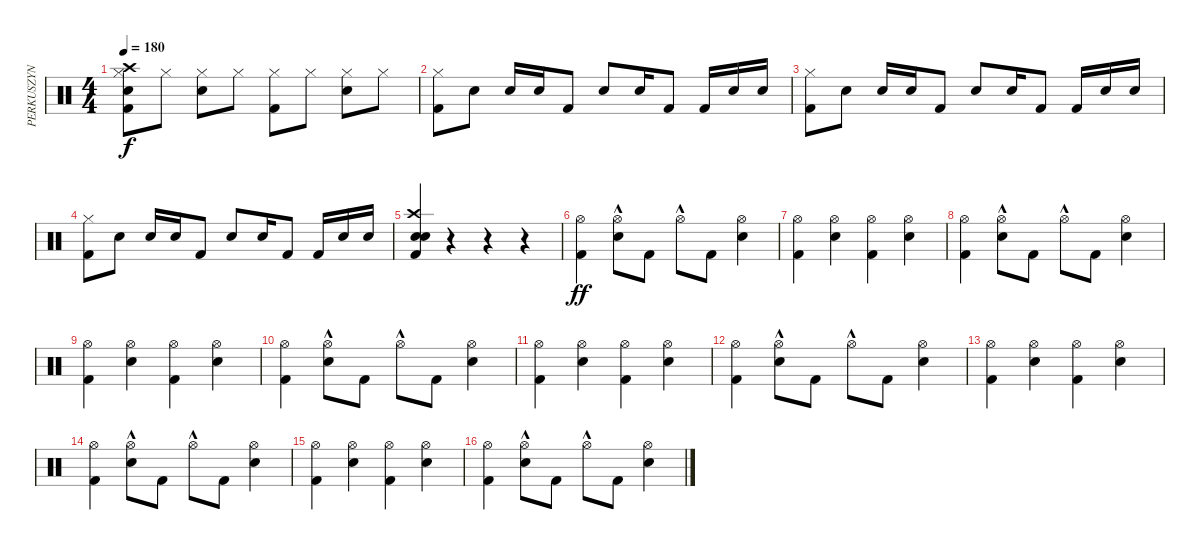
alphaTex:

\track ("PERKUSZYN" "PERKUSZYN") {instrument percussion}
\staff {score}
\articulation defaults
\ts (4 4)
\tempo 180
\clef neutral
\ks c
("Kick (hit) 2" "Snare (hit) 2" "Hi-Hat (closed)" "Crash high (hit)").8{dy f} "Hi-Hat (closed)".8 ("Snare (hit) 2" "Hi-Hat (closed)").8 "Hi-Hat (closed)".8 ("Kick (hit) 2" "Hi-Hat (closed)").8 "Hi-Hat (closed)".8 ("Snare (hit) 2" "Hi-Hat (closed)").8 "Hi-Hat (closed)".8 |
("Kick (hit) 2" "Hi-Hat (closed)").8 "Snare (hit) 2".8 "Snare (hit) 2".16 "Snare (hit) 2".16 "Kick (hit) 2".8 "Snare (hit) 2".8 "Snare (hit) 2".16 "Kick (hit) 2".8 "Kick (hit) 2".16 "Snare (hit) 2".16 "Snare (hit) 2".16 |
("Kick (hit) 2" "Hi-Hat (closed)").8 "Snare (hit) 2".8 "Snare (hit) 2".16 "Snare (hit) 2".16 "Kick (hit) 2".8 "Snare (hit) 2".8 "Snare (hit) 2".16 "Kick (hit) 2".8 "Kick (hit) 2".16 "Snare (hit) 2".16 "Snare (hit) 2".16 |
("Kick (hit) 2" "Hi-Hat (closed)").8 "Snare (hit) 2".8 "Snare (hit) 2".16 "Snare (hit) 2".16 "Kick (hit) 2".8 "Snare (hit) 2".8 "Snare (hit) 2".16 "Kick (hit) 2".8 "Kick (hit) 2".16 "Snare (hit) 2".16 "Snare (hit) 2".16 |
("Kick (hit) 2" "Crash high (hit)" "Snare (hit) 2" "Electric Snare (hit)").4 r.4 r.4 r.4 |
\section ("" "")
("Kick (hit) 2" "Hi-Hat (open)").4{dy ff} ("Snare (hit) 2" "Hi-Hat (open)"{hac}).8 "Kick (hit) 2".8 "Hi-Hat (open)"{hac}.8 "Kick (hit) 2".8 ("Snare (hit) 2" "Hi-Hat (open)").4 |
("Kick (hit) 2" "Hi-Hat (open)").4 ("Snare (hit) 2" "Hi-Hat (open)").4 ("Kick (hit) 2" "Hi-Hat (open)").4 ("Snare (hit) 2" "Hi-Hat (open)").4 |
("Kick (hit) 2" "Hi-Hat (open)").4 ("Snare (hit) 2" "Hi-Hat (open)"{hac}).8 "Kick (hit) 2".8 "Hi-Hat (open)"{hac}.8 "Kick (hit) 2".8 ("Snare (hit) 2" "Hi-Hat (open)").4 |
("Kick (hit) 2" "Hi-Hat (open)").4 ("Snare (hit) 2" "Hi-Hat (open)").4 ("Kick (hit) 2" "Hi-Hat (open)").4 ("Snare (hit) 2" "Hi-Hat (open)").4 |
("Kick (hit) 2" "Hi-Hat (open)").4 ("Snare (hit) 2" "Hi-Hat (open)"{hac}).8 "Kick (hit) 2".8 "Hi-Hat (open)"{hac}.8 "Kick (hit) 2".8 ("Snare (hit) 2" "Hi-Hat (open)").4 |
("Kick (hit) 2" "Hi-Hat (open)").4 ("Snare (hit) 2" "Hi-Hat (open)").4 ("Kick (hit) 2" "Hi-Hat (open)").4 ("Snare (hit) 2" "Hi-Hat (open)").4 |
("Kick (hit) 2" "Hi-Hat (open)").4 ("Snare (hit) 2" "Hi-Hat (open)"{hac}).8 "Kick (hit) 2".8 "Hi-Hat (open)"{hac}.8 "Kick (hit) 2".8 ("Snare (hit) 2" "Hi-Hat (open)").4 |
("Kick (hit) 2" "Hi-Hat (open)").4 ("Snare (hit) 2" "Hi-Hat (open)").4 ("Kick (hit) 2" "Hi-Hat (open)").4 ("Snare (hit) 2" "Hi-Hat (open)").4 |
("Kick (hit) 2" "Hi-Hat (open)").4 ("Snare (hit) 2" "Hi-Hat (open)"{hac}).8 "Kick (hit) 2".8 "Hi-Hat (open)"{hac}.8 "Kick (hit) 2".8 ("Snare (hit) 2" "Hi-Hat (open)").4 |
("Kick (hit) 2" "Hi-Hat (open)").4 ("Snare (hit) 2" "Hi-Hat (open)").4 ("Kick (hit) 2" "Hi-Hat (open)").4 ("Snare (hit) 2" "Hi-Hat (open)").4 |
("Kick (hit) 2" "Hi-Hat (open)").4 ("Snare (hit) 2" "Hi-Hat (open)"{hac}).8 "Kick (hit) 2".8 "Hi-Hat (open)"{hac}.8 "Kick (hit) 2".8 ("Snare (hit) 2" "Hi-Hat (open)").4
